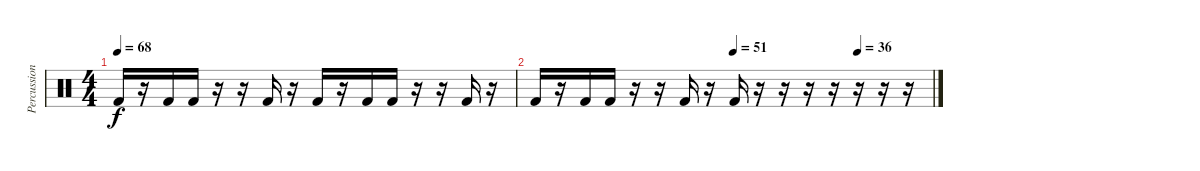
\track ("Percussion" "Percussion") {instrument percussion}
\staff {score}
\articulation defaults
\ts (4 4)
\tempo 68
\clef neutral
\ks c "Kick (hit) 2".16{dy f}
r.16 "Kick (hit) 2".16 "Kick (hit) 2".16 r.16 r.16 "Kick (hit) 2".16 r.16 "Kick (hit) 2".16 r.16 "Kick (hit) 2".16 "Kick (hit) 2".16 r.16 r.16 "Kick (hit) 2".16 r.16 |
\tempo (51 0.5)
\tempo (36 0.8125)
"Kick (hit) 2".16 r.16 "Kick (hit) 2".16 "Kick (hit) 2".16 r.16 r.16 "Kick (hit) 2".16 r.16 "Kick (hit) 2".16 r.16 r.16 r.16 r.16 r.16 r.16 r.16
